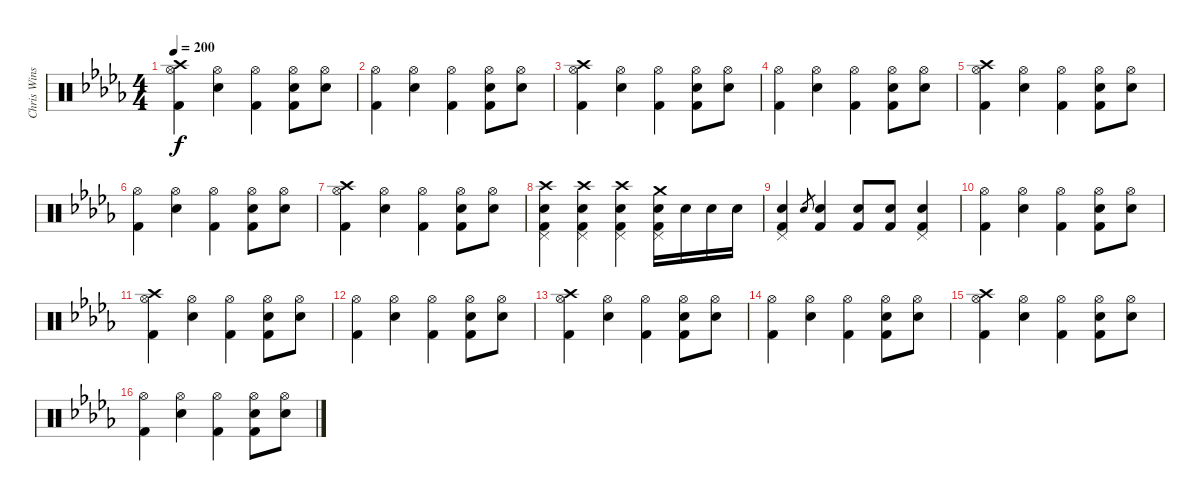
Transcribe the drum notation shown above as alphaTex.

\track ("Chris Winship (Drums)" "Chris Wins") {instrument percussion}
\staff {score}
\articulation defaults
\ts (4 4)
\tempo 200
\clef neutral
\ks bbminor
("Crash high (hit)" "Hi-Hat (open)" "Kick (hit) 2").4{dy f} ("Hi-Hat (open)" "Electric Snare (hit)").4 ("Hi-Hat (open)" "Kick (hit) 2").4 ("Hi-Hat (open)" "Electric Snare (hit)" "Kick (hit) 2").8 ("Hi-Hat (open)" "Electric Snare (hit)").8 |
("Hi-Hat (open)" "Kick (hit) 2").4 ("Hi-Hat (open)" "Electric Snare (hit)").4 ("Hi-Hat (open)" "Kick (hit) 2").4 ("Hi-Hat (open)" "Electric Snare (hit)" "Kick (hit) 2").8 ("Hi-Hat (open)" "Electric Snare (hit)").8 |
("Crash high (hit)" "Hi-Hat (open)" "Kick (hit) 2").4 ("Hi-Hat (open)" "Electric Snare (hit)").4 ("Hi-Hat (open)" "Kick (hit) 2").4 ("Hi-Hat (open)" "Electric Snare (hit)" "Kick (hit) 2").8 ("Hi-Hat (open)" "Electric Snare (hit)").8 |
("Hi-Hat (open)" "Kick (hit) 2").4 ("Hi-Hat (open)" "Electric Snare (hit)").4 ("Hi-Hat (open)" "Kick (hit) 2").4 ("Hi-Hat (open)" "Electric Snare (hit)" "Kick (hit) 2").8 ("Hi-Hat (open)" "Electric Snare (hit)").8 |
("Crash high (hit)" "Hi-Hat (open)" "Kick (hit) 2").4 ("Hi-Hat (open)" "Electric Snare (hit)").4 ("Hi-Hat (open)" "Kick (hit) 2").4 ("Hi-Hat (open)" "Electric Snare (hit)" "Kick (hit) 2").8 ("Hi-Hat (open)" "Electric Snare (hit)").8 |
("Hi-Hat (open)" "Kick (hit) 2").4 ("Hi-Hat (open)" "Electric Snare (hit)").4 ("Hi-Hat (open)" "Kick (hit) 2").4 ("Hi-Hat (open)" "Electric Snare (hit)" "Kick (hit) 2").8 ("Hi-Hat (open)" "Electric Snare (hit)").8 |
("Crash high (hit)" "Hi-Hat (open)" "Kick (hit) 2").4 ("Hi-Hat (open)" "Electric Snare (hit)").4 ("Hi-Hat (open)" "Kick (hit) 2").4 ("Hi-Hat (open)" "Electric Snare (hit)" "Kick (hit) 2").8 ("Hi-Hat (open)" "Electric Snare (hit)").8 |
("Crash high (hit)" "Electric Snare (hit)" "Kick (hit) 2" "Pedal Hi-Hat (hit)").4 ("Crash high (hit)" "Electric Snare (hit)" "Kick (hit) 2" "Pedal Hi-Hat (hit)").4 ("Crash high (hit)" "Electric Snare (hit)" "Kick (hit) 2" "Pedal Hi-Hat (hit)").4 ("Kick (hit) 2" "Electric Snare (hit)" "Crash medium (hit)" "Pedal Hi-Hat (hit)").16 "Electric Snare (hit)".16 "Electric Snare (hit)".16 "Electric Snare (hit)".16 |
("Electric Snare (hit)" "Pedal Hi-Hat (hit)" "Kick (hit) 2").4 "Snare (hit) 2".8{gr} ("Electric Snare (hit)" "Kick (hit) 2").4 ("Snare (hit) 2" "Kick (hit) 2").8 ("Snare (hit) 2" "Kick (hit) 2").8 ("Electric Snare (hit)" "Pedal Hi-Hat (hit)" "Kick (hit) 2").4 |
("Hi-Hat (open)" "Kick (hit) 2").4 ("Hi-Hat (open)" "Electric Snare (hit)").4 ("Hi-Hat (open)" "Kick (hit) 2").4 ("Hi-Hat (open)" "Electric Snare (hit)" "Kick (hit) 2").8 ("Hi-Hat (open)" "Electric Snare (hit)").8 |
("Crash high (hit)" "Hi-Hat (open)" "Kick (hit) 2").4 ("Hi-Hat (open)" "Electric Snare (hit)").4 ("Hi-Hat (open)" "Kick (hit) 2").4 ("Hi-Hat (open)" "Electric Snare (hit)" "Kick (hit) 2").8 ("Hi-Hat (open)" "Electric Snare (hit)").8 |
("Hi-Hat (open)" "Kick (hit) 2").4 ("Hi-Hat (open)" "Electric Snare (hit)").4 ("Hi-Hat (open)" "Kick (hit) 2").4 ("Hi-Hat (open)" "Electric Snare (hit)" "Kick (hit) 2").8 ("Hi-Hat (open)" "Electric Snare (hit)").8 |
("Crash high (hit)" "Hi-Hat (open)" "Kick (hit) 2").4 ("Hi-Hat (open)" "Electric Snare (hit)").4 ("Hi-Hat (open)" "Kick (hit) 2").4 ("Hi-Hat (open)" "Electric Snare (hit)" "Kick (hit) 2").8 ("Hi-Hat (open)" "Electric Snare (hit)").8 |
("Hi-Hat (open)" "Kick (hit) 2").4 ("Hi-Hat (open)" "Electric Snare (hit)").4 ("Hi-Hat (open)" "Kick (hit) 2").4 ("Hi-Hat (open)" "Electric Snare (hit)" "Kick (hit) 2").8 ("Hi-Hat (open)" "Electric Snare (hit)").8 |
("Crash high (hit)" "Hi-Hat (open)" "Kick (hit) 2").4 ("Hi-Hat (open)" "Electric Snare (hit)").4 ("Hi-Hat (open)" "Kick (hit) 2").4 ("Hi-Hat (open)" "Electric Snare (hit)" "Kick (hit) 2").8 ("Hi-Hat (open)" "Electric Snare (hit)").8 |
("Hi-Hat (open)" "Kick (hit) 2").4 ("Hi-Hat (open)" "Electric Snare (hit)").4 ("Hi-Hat (open)" "Kick (hit) 2").4 ("Hi-Hat (open)" "Electric Snare (hit)" "Kick (hit) 2").8 ("Hi-Hat (open)" "Electric Snare (hit)").8
